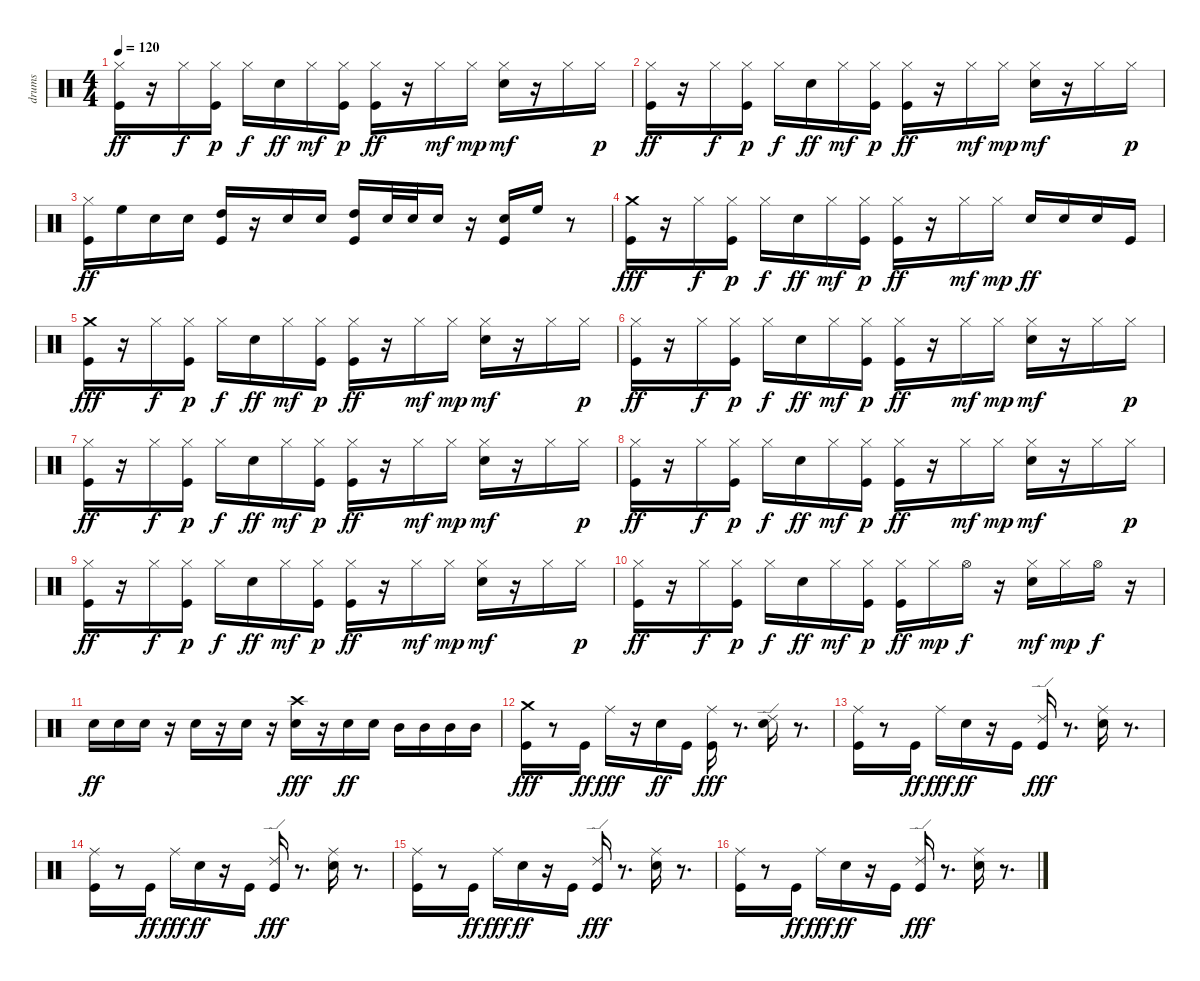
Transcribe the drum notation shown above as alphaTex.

\track ("drums" "drums") {instrument percussion}
\staff {score}
\articulation defaults
\ts (4 4)
\tempo 120
\clef neutral
\ks c
("Kick (hit)" "Hi-Hat (closed)").16{dy ff} r.16 "Hi-Hat (closed)".16{dy f} ("Kick (hit)" "Hi-Hat (closed)").16{dy p} "Hi-Hat (closed)".16{dy f} "Electric Snare (hit)".16{dy ff} "Hi-Hat (closed)".16{dy mf} ("Kick (hit)" "Hi-Hat (closed)").16{dy p} ("Kick (hit)" "Hi-Hat (closed)").16{dy ff} r.16 "Hi-Hat (closed)".16{dy mf} "Hi-Hat (closed)".16{dy mp} ("Electric Snare (hit)" "Hi-Hat (closed)").16{dy mf} r.16 "Hi-Hat (closed)".16 "Hi-Hat (closed)".16{dy p} |
("Kick (hit)" "Hi-Hat (closed)").16{dy ff} r.16 "Hi-Hat (closed)".16{dy f} ("Kick (hit)" "Hi-Hat (closed)").16{dy p} "Hi-Hat (closed)".16{dy f} "Electric Snare (hit)".16{dy ff} "Hi-Hat (closed)".16{dy mf} ("Kick (hit)" "Hi-Hat (closed)").16{dy p} ("Kick (hit)" "Hi-Hat (closed)").16{dy ff} r.16 "Hi-Hat (closed)".16{dy mf} "Hi-Hat (closed)".16{dy mp} ("Electric Snare (hit)" "Hi-Hat (closed)").16{dy mf} r.16 "Hi-Hat (closed)".16 "Hi-Hat (closed)".16{dy p} |
("Kick (hit)" "Hi-Hat (closed)").16{dy ff} "High Floor Tom (hit)".16 "Electric Snare (hit)".16 "Electric Snare (hit)".16 ("High Tom (hit)" "Kick (hit)").16 r.16 "Electric Snare (hit)".16 "Electric Snare (hit)".16 ("High Tom (hit)" "Kick (hit)").16 "Electric Snare (hit)".32 "Electric Snare (hit)".32 "Electric Snare (hit)".16 r.16 ("Electric Snare (hit)" "Kick (hit)").16 "High Floor Tom (hit)".16 r.8 |
("Kick (hit)" "Crash medium (hit)").16{dy fff} r.16 "Hi-Hat (closed)".16{dy f} ("Kick (hit)" "Hi-Hat (closed)").16{dy p} "Hi-Hat (closed)".16{dy f} "Electric Snare (hit)".16{dy ff} "Hi-Hat (closed)".16{dy mf} ("Kick (hit)" "Hi-Hat (closed)").16{dy p} ("Kick (hit)" "Hi-Hat (closed)").16{dy ff} r.16 "Hi-Hat (closed)".16{dy mf} "Hi-Hat (closed)".16{dy mp} "Electric Snare (hit)".16{dy ff} "Electric Snare (hit)".16 "Electric Snare (hit)".16 "Kick (hit)".16 |
("Kick (hit)" "Crash medium (hit)").16{dy fff} r.16 "Hi-Hat (closed)".16{dy f} ("Kick (hit)" "Hi-Hat (closed)").16{dy p} "Hi-Hat (closed)".16{dy f} "Electric Snare (hit)".16{dy ff} "Hi-Hat (closed)".16{dy mf} ("Kick (hit)" "Hi-Hat (closed)").16{dy p} ("Kick (hit)" "Hi-Hat (closed)").16{dy ff} r.16 "Hi-Hat (closed)".16{dy mf} "Hi-Hat (closed)".16{dy mp} ("Electric Snare (hit)" "Hi-Hat (closed)").16{dy mf} r.16 "Hi-Hat (closed)".16 "Hi-Hat (closed)".16{dy p} |
("Kick (hit)" "Hi-Hat (closed)").16{dy ff} r.16 "Hi-Hat (closed)".16{dy f} ("Kick (hit)" "Hi-Hat (closed)").16{dy p} "Hi-Hat (closed)".16{dy f} "Electric Snare (hit)".16{dy ff} "Hi-Hat (closed)".16{dy mf} ("Kick (hit)" "Hi-Hat (closed)").16{dy p} ("Kick (hit)" "Hi-Hat (closed)").16{dy ff} r.16 "Hi-Hat (closed)".16{dy mf} "Hi-Hat (closed)".16{dy mp} ("Electric Snare (hit)" "Hi-Hat (closed)").16{dy mf} r.16 "Hi-Hat (closed)".16 "Hi-Hat (closed)".16{dy p} |
("Kick (hit)" "Hi-Hat (closed)").16{dy ff} r.16 "Hi-Hat (closed)".16{dy f} ("Kick (hit)" "Hi-Hat (closed)").16{dy p} "Hi-Hat (closed)".16{dy f} "Electric Snare (hit)".16{dy ff} "Hi-Hat (closed)".16{dy mf} ("Kick (hit)" "Hi-Hat (closed)").16{dy p} ("Kick (hit)" "Hi-Hat (closed)").16{dy ff} r.16 "Hi-Hat (closed)".16{dy mf} "Hi-Hat (closed)".16{dy mp} ("Electric Snare (hit)" "Hi-Hat (closed)").16{dy mf} r.16 "Hi-Hat (closed)".16 "Hi-Hat (closed)".16{dy p} |
("Kick (hit)" "Hi-Hat (closed)").16{dy ff} r.16 "Hi-Hat (closed)".16{dy f} ("Kick (hit)" "Hi-Hat (closed)").16{dy p} "Hi-Hat (closed)".16{dy f} "Electric Snare (hit)".16{dy ff} "Hi-Hat (closed)".16{dy mf} ("Kick (hit)" "Hi-Hat (closed)").16{dy p} ("Kick (hit)" "Hi-Hat (closed)").16{dy ff} r.16 "Hi-Hat (closed)".16{dy mf} "Hi-Hat (closed)".16{dy mp} ("Electric Snare (hit)" "Hi-Hat (closed)").16{dy mf} r.16 "Hi-Hat (closed)".16 "Hi-Hat (closed)".16{dy p} |
("Kick (hit)" "Hi-Hat (closed)").16{dy ff} r.16 "Hi-Hat (closed)".16{dy f} ("Kick (hit)" "Hi-Hat (closed)").16{dy p} "Hi-Hat (closed)".16{dy f} "Electric Snare (hit)".16{dy ff} "Hi-Hat (closed)".16{dy mf} ("Kick (hit)" "Hi-Hat (closed)").16{dy p} ("Kick (hit)" "Hi-Hat (closed)").16{dy ff} r.16 "Hi-Hat (closed)".16{dy mf} "Hi-Hat (closed)".16{dy mp} ("Electric Snare (hit)" "Hi-Hat (closed)").16{dy mf} r.16 "Hi-Hat (closed)".16 "Hi-Hat (closed)".16{dy p} |
("Kick (hit)" "Hi-Hat (closed)").16{dy ff} r.16 "Hi-Hat (closed)".16{dy f} ("Kick (hit)" "Hi-Hat (closed)").16{dy p} "Hi-Hat (closed)".16{dy f} "Electric Snare (hit)".16{dy ff} "Hi-Hat (closed)".16{dy mf} ("Kick (hit)" "Hi-Hat (closed)").16{dy p} ("Kick (hit)" "Hi-Hat (closed)").16{dy ff} "Hi-Hat (closed)".16{dy mp} "Hi-Hat (open)".16{dy f} r.16 ("Electric Snare (hit)" "Hi-Hat (closed)").16{dy mf} "Hi-Hat (closed)".16{dy mp} "Hi-Hat (open)".16{dy f} r.16 |
"Electric Snare (hit)".16{dy ff} "Electric Snare (hit)".16 "Electric Snare (hit)".16 r.16 "Electric Snare (hit)".16 r.16 "Electric Snare (hit)".16 r.16 ("Electric Snare (hit)" "Crash high (hit)").16{dy fff} r.16 "Electric Snare (hit)".16{dy ff} "Electric Snare (hit)".16 "Mid Tom (hit)".16 "Mid Tom (hit)".16 "Mid Tom (hit)".16 "Mid Tom (hit)".16 |
("Kick (hit)" "Crash medium (hit)").16{dy fff} r.8 "Kick (hit)".16{dy ff} "Ride (middle)".16{dy fff} r.16 "Electric Snare (hit)".16{dy ff} "Kick (hit)".16 ("Kick (hit)" "Ride (middle)").16{dy fff} r.8{d} ("Electric Snare (hit)" "Ride (edge) 2").16 r.8{d} |
("Kick (hit)" "Ride (middle)").16 r.8 "Kick (hit)".16{dy ff} "Ride (middle)".16{dy fff} "Electric Snare (hit)".16{dy ff} r.16 "Kick (hit)".16 ("Kick (hit)" "Ride (edge) 2").16{dy fff} r.8{d} ("Electric Snare (hit)" "Ride (middle)").16 r.8{d} |
("Kick (hit)" "Ride (middle)").16 r.8 "Kick (hit)".16{dy ff} "Ride (middle)".16{dy fff} "Electric Snare (hit)".16{dy ff} r.16 "Kick (hit)".16 ("Kick (hit)" "Ride (edge) 2").16{dy fff} r.8{d} ("Electric Snare (hit)" "Ride (middle)").16 r.8{d} |
("Kick (hit)" "Ride (middle)").16 r.8 "Kick (hit)".16{dy ff} "Ride (middle)".16{dy fff} "Electric Snare (hit)".16{dy ff} r.16 "Kick (hit)".16 ("Kick (hit)" "Ride (edge) 2").16{dy fff} r.8{d} ("Electric Snare (hit)" "Ride (middle)").16 r.8{d} |
("Kick (hit)" "Ride (middle)").16 r.8 "Kick (hit)".16{dy ff} "Ride (middle)".16{dy fff} "Electric Snare (hit)".16{dy ff} r.16 "Kick (hit)".16 ("Kick (hit)" "Ride (edge) 2").16{dy fff} r.8{d} ("Electric Snare (hit)" "Ride (middle)").16 r.8{d}
